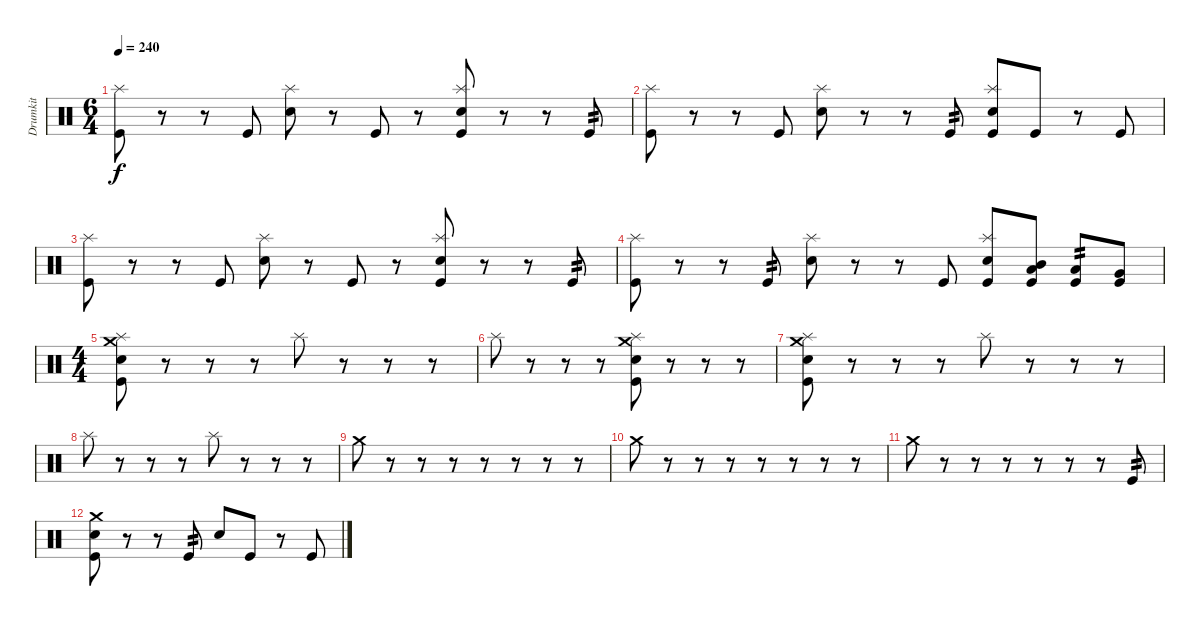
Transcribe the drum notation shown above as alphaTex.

\track ("Drumkit" "Drumkit") {instrument percussion}
\staff {score}
\articulation defaults
\ts (6 4)
\tempo 240
\clef neutral
\ks c
("Kick (hit)" "Splash (hit)").8{dy f} r.8 r.8 "Kick (hit)".8 ("Snare (hit) 2" "Splash (hit)").8 r.8 "Kick (hit)".8 r.8 ("Kick (hit)" "Snare (hit) 2" "Splash (hit)").8 r.8 r.8 "Kick (hit)".8{tp 2} |
("Kick (hit)" "Splash (hit)").8 r.8 r.8 "Kick (hit)".8 ("Snare (hit) 2" "Splash (hit)").8 r.8 r.8 "Kick (hit)".8{tp 2} ("Kick (hit)" "Snare (hit) 2" "Splash (hit)").8 "Kick (hit)".8 r.8 "Kick (hit)".8 |
("Kick (hit)" "Splash (hit)").8 r.8 r.8 "Kick (hit)".8 ("Snare (hit) 2" "Splash (hit)").8 r.8 "Kick (hit)".8 r.8 ("Kick (hit)" "Snare (hit) 2" "Splash (hit)").8 r.8 r.8 "Kick (hit)".8{tp 2} |
("Kick (hit)" "Splash (hit)").8 r.8 r.8 "Kick (hit)".8{tp 2} ("Snare (hit) 2" "Splash (hit)").8 r.8 r.8 "Kick (hit)".8 ("Kick (hit)" "Snare (hit) 2" "Splash (hit)").8 ("Kick (hit)" "Low Tom (hit)" "Mid Tom (hit)").8 ("Kick (hit)" "Low Tom (hit)").8{tp 2} ("Kick (hit)" "Very Low Tom (hit)").8 |
\ts (4 4)
("Splash (hit)" "Crash medium (hit)" "Snare (hit) 2" "Kick (hit)").8 r.8 r.8 r.8 "Splash (hit)".8 r.8 r.8 r.8 |
"Splash (hit)".8 r.8 r.8 r.8 ("Splash (hit)" "Crash medium (hit)" "Snare (hit) 2" "Kick (hit)").8 r.8 r.8 r.8 |
("Splash (hit)" "Crash medium (hit)" "Snare (hit) 2" "Kick (hit)").8 r.8 r.8 r.8 "Splash (hit)".8 r.8 r.8 r.8 |
"Splash (hit)".8 r.8 r.8 r.8 "Splash (hit)".8 r.8 r.8 r.8 |
"Crash medium (hit)".8 r.8 r.8 r.8 r.8 r.8 r.8 r.8 |
"Crash medium (hit)".8 r.8 r.8 r.8 r.8 r.8 r.8 r.8 |
"Crash medium (hit)".8 r.8 r.8 r.8 r.8 r.8 r.8 "Kick (hit)".8{tp 2} |
("Crash medium (hit)" "Snare (hit) 2" "Kick (hit)").8 r.8 r.8 "Kick (hit)".8{tp 2} "Snare (hit) 2".8 "Kick (hit)".8 r.8 "Kick (hit)".8
